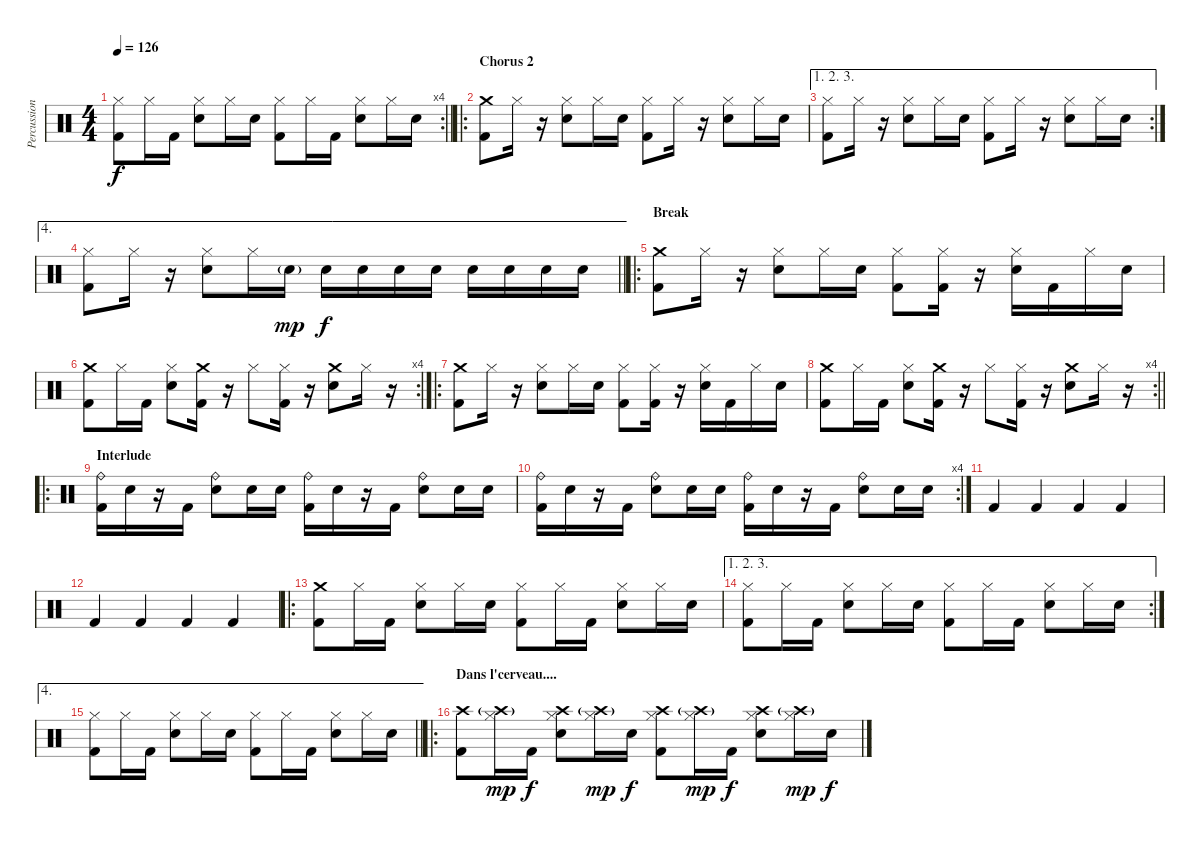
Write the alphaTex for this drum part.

\track ("Percussions" "Percussion") {instrument percussion}
\staff {score}
\articulation defaults
\rc 4
\ts (4 4)
\tempo 126
\clef neutral
\barLineRight lightlight
\ks c
("Hi-Hat (closed)" "Kick (hit) 2").8{dy f} "Hi-Hat (closed)".16 "Kick (hit) 2".16 ("Hi-Hat (closed)" "Electric Snare (hit)").8 "Hi-Hat (closed)".16 "Electric Snare (hit)".16 ("Hi-Hat (closed)" "Kick (hit) 2").8 "Hi-Hat (closed)".16 "Kick (hit) 2".16 ("Hi-Hat (closed)" "Electric Snare (hit)").8 "Hi-Hat (closed)".16 "Electric Snare (hit)".16 |
\ro
\section ("" "Chorus 2")
("Crash medium (hit)" "Kick (hit) 2").8 "Hi-Hat (closed)".16 r.16 ("Hi-Hat (closed)" "Electric Snare (hit)").8 "Hi-Hat (closed)".16 "Electric Snare (hit)".16 ("Hi-Hat (closed)" "Kick (hit) 2").8 "Hi-Hat (closed)".16 r.16 ("Hi-Hat (closed)" "Electric Snare (hit)").8 "Hi-Hat (closed)".16 "Electric Snare (hit)".16 |
\ae (1 2 3)
\rc 2
("Hi-Hat (closed)" "Kick (hit) 2").8 "Hi-Hat (closed)".16 r.16 ("Hi-Hat (closed)" "Electric Snare (hit)").8 "Hi-Hat (closed)".16 "Electric Snare (hit)".16 ("Hi-Hat (closed)" "Kick (hit) 2").8 "Hi-Hat (closed)".16 r.16 ("Hi-Hat (closed)" "Electric Snare (hit)").8 "Hi-Hat (closed)".16 "Electric Snare (hit)".16 |
\ae 4
\barLineRight lightlight
("Hi-Hat (closed)" "Kick (hit) 2").8 "Hi-Hat (closed)".16 r.16 ("Hi-Hat (closed)" "Electric Snare (hit)").8 "Hi-Hat (closed)".16 "Electric Snare (hit)"{g}.16{dy mp} "Electric Snare (hit)".16{dy f} "Electric Snare (hit)".16 "Electric Snare (hit)".16 "Electric Snare (hit)".16 "Electric Snare (hit)".16 "Electric Snare (hit)".16 "Electric Snare (hit)".16 "Electric Snare (hit)".16 |
\ro
\section ("" "Break")
("Crash medium (hit)" "Kick (hit) 2").8 "Hi-Hat (closed)".16 r.16 ("Hi-Hat (closed)" "Electric Snare (hit)").8 "Hi-Hat (closed)".16 "Electric Snare (hit)".16 ("Hi-Hat (closed)" "Kick (hit) 2").8 ("Hi-Hat (closed)" "Kick (hit) 2").16 r.16 ("Hi-Hat (closed)" "Electric Snare (hit)").16 "Kick (hit) 2".16 "Hi-Hat (closed)".16 "Electric Snare (hit)".16 |
\rc 4
("Crash medium (hit)" "Kick (hit) 2").8 "Hi-Hat (closed)".16 "Kick (hit) 2".16 ("Hi-Hat (closed)" "Electric Snare (hit)").8 ("Crash medium (hit)" "Kick (hit) 2").16 r.16 "Hi-Hat (closed)".8 ("Hi-Hat (closed)" "Kick (hit) 2").16 r.16 ("Crash medium (hit)" "Electric Snare (hit)").8 "Hi-Hat (closed)".16 r.16 |
\ro
("Crash medium (hit)" "Kick (hit) 2").8 "Hi-Hat (closed)".16 r.16 ("Hi-Hat (closed)" "Electric Snare (hit)").8 "Hi-Hat (closed)".16 "Electric Snare (hit)".16 ("Hi-Hat (closed)" "Kick (hit) 2").8 ("Hi-Hat (closed)" "Kick (hit) 2").16 r.16 ("Hi-Hat (closed)" "Electric Snare (hit)").16 "Kick (hit) 2".16 "Hi-Hat (closed)".16 "Electric Snare (hit)".16 |
\rc 4
\barLineRight lightlight
("Crash medium (hit)" "Kick (hit) 2").8 "Hi-Hat (closed)".16 "Kick (hit) 2".16 ("Hi-Hat (closed)" "Electric Snare (hit)").8 ("Crash medium (hit)" "Kick (hit) 2").16 r.16 "Hi-Hat (closed)".8 ("Hi-Hat (closed)" "Kick (hit) 2").16 r.16 ("Crash medium (hit)" "Electric Snare (hit)").8 "Hi-Hat (closed)".16 r.16 |
\ro
\section ("" "Interlude")
("Ride (bell)" "Kick (hit) 2").16 "Electric Snare (hit)".16 r.16 "Kick (hit) 2".16 ("Ride (bell)" "Electric Snare (hit)").8 "Electric Snare (hit)".16 "Electric Snare (hit)".16 ("Ride (bell)" "Kick (hit) 2").16 "Electric Snare (hit)".16 r.16 "Kick (hit) 2".16 ("Ride (bell)" "Electric Snare (hit)").8 "Electric Snare (hit)".16 "Electric Snare (hit)".16 |
\rc 4
("Ride (bell)" "Kick (hit) 2").16 "Electric Snare (hit)".16 r.16 "Kick (hit) 2".16 ("Ride (bell)" "Electric Snare (hit)").8 "Electric Snare (hit)".16 "Electric Snare (hit)".16 ("Ride (bell)" "Kick (hit) 2").16 "Electric Snare (hit)".16 r.16 "Kick (hit) 2".16 ("Ride (bell)" "Electric Snare (hit)").8 "Electric Snare (hit)".16 "Electric Snare (hit)".16 |
"Kick (hit) 2".4 "Kick (hit) 2".4 "Kick (hit) 2".4 "Kick (hit) 2".4 |
"Kick (hit) 2".4 "Kick (hit) 2".4 "Kick (hit) 2".4 "Kick (hit) 2".4 |
\ro
("Crash medium (hit)" "Kick (hit) 2").8 "Hi-Hat (closed)".16 "Kick (hit) 2".16 ("Hi-Hat (closed)" "Electric Snare (hit)").8 "Hi-Hat (closed)".16 "Electric Snare (hit)".16 ("Hi-Hat (closed)" "Kick (hit) 2").8 "Hi-Hat (closed)".16 "Kick (hit) 2".16 ("Hi-Hat (closed)" "Electric Snare (hit)").8 "Hi-Hat (closed)".16 "Electric Snare (hit)".16 |
\ae (1 2 3)
\rc 2
("Hi-Hat (closed)" "Kick (hit) 2").8 "Hi-Hat (closed)".16 "Kick (hit) 2".16 ("Hi-Hat (closed)" "Electric Snare (hit)").8 "Hi-Hat (closed)".16 "Electric Snare (hit)".16 ("Hi-Hat (closed)" "Kick (hit) 2").8 "Hi-Hat (closed)".16 "Kick (hit) 2".16 ("Hi-Hat (closed)" "Electric Snare (hit)").8 "Hi-Hat (closed)".16 "Electric Snare (hit)".16 |
\ae 4
\barLineRight lightlight
("Hi-Hat (closed)" "Kick (hit) 2").8 "Hi-Hat (closed)".16 "Kick (hit) 2".16 ("Hi-Hat (closed)" "Electric Snare (hit)").8 "Hi-Hat (closed)".16 "Electric Snare (hit)".16 ("Hi-Hat (closed)" "Kick (hit) 2").8 "Hi-Hat (closed)".16 "Kick (hit) 2".16 ("Hi-Hat (closed)" "Electric Snare (hit)").8 "Hi-Hat (closed)".16 "Electric Snare (hit)".16 |
\ro
\section ("" "Dans l'cerveau....")
("Crash high (hit)" "Kick (hit) 2").8 ("Crash high (hit)"{g} "Hi-Hat (closed)").16{dy mp} "Kick (hit) 2".16{dy f} ("Crash high (hit)" "Hi-Hat (closed)" "Electric Snare (hit)").8 ("Crash high (hit)"{g} "Hi-Hat (closed)").16{dy mp} "Electric Snare (hit)".16{dy f} ("Crash high (hit)" "Hi-Hat (closed)" "Kick (hit) 2").8 ("Crash high (hit)"{g} "Hi-Hat (closed)").16{dy mp} "Kick (hit) 2".16{dy f} ("Crash high (hit)" "Hi-Hat (closed)" "Electric Snare (hit)").8 ("Crash high (hit)"{g} "Hi-Hat (closed)").16{dy mp} "Electric Snare (hit)".16{dy f}
